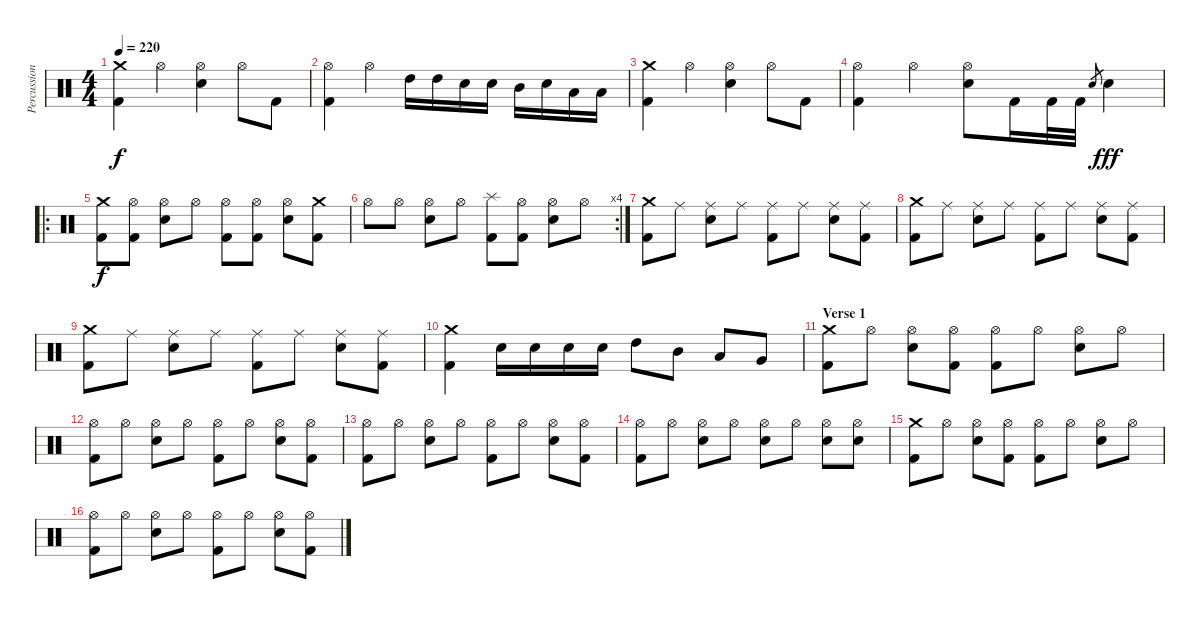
\track ("Percussion" "Percussion") {instrument percussion}
\staff {score}
\articulation defaults
\ts (4 4)
\tempo 220
\clef neutral
\ks c
("Crash medium (hit)" "Kick (hit) 2").4{dy f} "Hi-Hat (open)".4 ("Snare (hit) 2" "Hi-Hat (open)").4 "Hi-Hat (open)".8 "Kick (hit) 2".8 |
("Kick (hit) 2" "Hi-Hat (open)").4 "Hi-Hat (open)".4 "High Tom (hit)".16 "High Tom (hit)".16 "Snare (hit) 2".16 "Snare (hit) 2".16 "Mid Tom (hit)".16 "Snare (hit) 2".16 "Low Tom (hit)".16 "Low Tom (hit)".16 |
("Crash medium (hit)" "Kick (hit) 2").4 "Hi-Hat (open)".4 ("Snare (hit) 2" "Hi-Hat (open)").4 "Hi-Hat (open)".8 "Kick (hit) 2".8 |
("Kick (hit) 2" "Hi-Hat (open)").4 "Hi-Hat (open)".4 ("Snare (hit) 2" "Hi-Hat (open)").8 "Kick (hit) 2".16 "Kick (hit) 2".32 "Kick (hit) 2".32 "Snare (hit) 2".8{gr} "Snare (hit) 2".4{dy fff} |
\ro
("Kick (hit) 2" "Crash medium (hit)").8{dy f} ("Kick (hit) 2" "Hi-Hat (open)").8 ("Snare (hit) 2" "Hi-Hat (open)").8 "Hi-Hat (open)".8 ("Kick (hit) 2" "Hi-Hat (open)").8 ("Kick (hit) 2" "Hi-Hat (open)").8 ("Snare (hit) 2" "Hi-Hat (open)").8 ("Kick (hit) 2" "Crash medium (hit)").8 |
\rc 4 "Hi-Hat (open)".8 "Hi-Hat (open)".8
("Snare (hit) 2" "Hi-Hat (open)").8 "Hi-Hat (open)".8 ("Kick (hit) 2" "Splash (hit)").8 ("Kick (hit) 2" "Hi-Hat (open)").8 ("Snare (hit) 2" "Hi-Hat (open)").8 "Hi-Hat (open)".8 |
("Kick (hit) 2" "Crash medium (hit)").8 "Ride (middle)".8 ("Snare (hit) 2" "Ride (middle)").8 "Ride (middle)".8 ("Kick (hit) 2" "Ride (middle)").8 "Ride (middle)".8 ("Snare (hit) 2" "Ride (middle)").8 ("Kick (hit) 2" "Ride (middle)").8 |
("Kick (hit) 2" "Crash medium (hit)").8 "Ride (middle)".8 ("Snare (hit) 2" "Ride (middle)").8 "Ride (middle)".8 ("Kick (hit) 2" "Ride (middle)").8 "Ride (middle)".8 ("Snare (hit) 2" "Ride (middle)").8 ("Kick (hit) 2" "Ride (middle)").8 |
("Kick (hit) 2" "Crash medium (hit)").8 "Ride (middle)".8 ("Snare (hit) 2" "Ride (middle)").8 "Ride (middle)".8 ("Kick (hit) 2" "Ride (middle)").8 "Ride (middle)".8 ("Snare (hit) 2" "Ride (middle)").8 ("Kick (hit) 2" "Ride (middle)").8 |
("Kick (hit) 2" "Crash medium (hit)").4 "Snare (hit) 2".16 "Snare (hit) 2".16 "Snare (hit) 2".16 "Snare (hit) 2".16 "High Tom (hit)".8 "Mid Tom (hit)".8 "Low Tom (hit)".8 "Very Low Tom (hit)".8 |
\section ("" "Verse 1")
("Crash medium (hit)" "Kick (hit) 2").8 "Hi-Hat (open)".8 ("Snare (hit) 2" "Hi-Hat (open)").8 ("Kick (hit) 2" "Hi-Hat (open)").8 ("Kick (hit) 2" "Hi-Hat (open)").8 "Hi-Hat (open)".8 ("Snare (hit) 2" "Hi-Hat (open)").8 "Hi-Hat (open)".8 |
("Kick (hit) 2" "Hi-Hat (open)").8 "Hi-Hat (open)".8 ("Snare (hit) 2" "Hi-Hat (open)").8 "Hi-Hat (open)".8 ("Kick (hit) 2" "Hi-Hat (open)").8 "Hi-Hat (open)".8 ("Snare (hit) 2" "Hi-Hat (open)").8 ("Kick (hit) 2" "Hi-Hat (open)").8 |
("Kick (hit) 2" "Hi-Hat (open)").8 "Hi-Hat (open)".8 ("Snare (hit) 2" "Hi-Hat (open)").8 "Hi-Hat (open)".8 ("Kick (hit) 2" "Hi-Hat (open)").8 "Hi-Hat (open)".8 ("Snare (hit) 2" "Hi-Hat (open)").8 ("Kick (hit) 2" "Hi-Hat (open)").8 |
("Kick (hit) 2" "Hi-Hat (open)").8 "Hi-Hat (open)".8 ("Snare (hit) 2" "Hi-Hat (open)").8 "Hi-Hat (open)".8 ("Snare (hit) 2" "Hi-Hat (open)").8 "Hi-Hat (open)".8 ("Snare (hit) 2" "Hi-Hat (open)").8 ("Snare (hit) 2" "Hi-Hat (open)").8 |
("Crash medium (hit)" "Kick (hit) 2").8 "Hi-Hat (open)".8 ("Snare (hit) 2" "Hi-Hat (open)").8 ("Kick (hit) 2" "Hi-Hat (open)").8 ("Kick (hit) 2" "Hi-Hat (open)").8 "Hi-Hat (open)".8 ("Snare (hit) 2" "Hi-Hat (open)").8 "Hi-Hat (open)".8 |
("Kick (hit) 2" "Hi-Hat (open)").8 "Hi-Hat (open)".8 ("Snare (hit) 2" "Hi-Hat (open)").8 "Hi-Hat (open)".8 ("Kick (hit) 2" "Hi-Hat (open)").8 "Hi-Hat (open)".8 ("Snare (hit) 2" "Hi-Hat (open)").8 ("Kick (hit) 2" "Hi-Hat (open)").8
